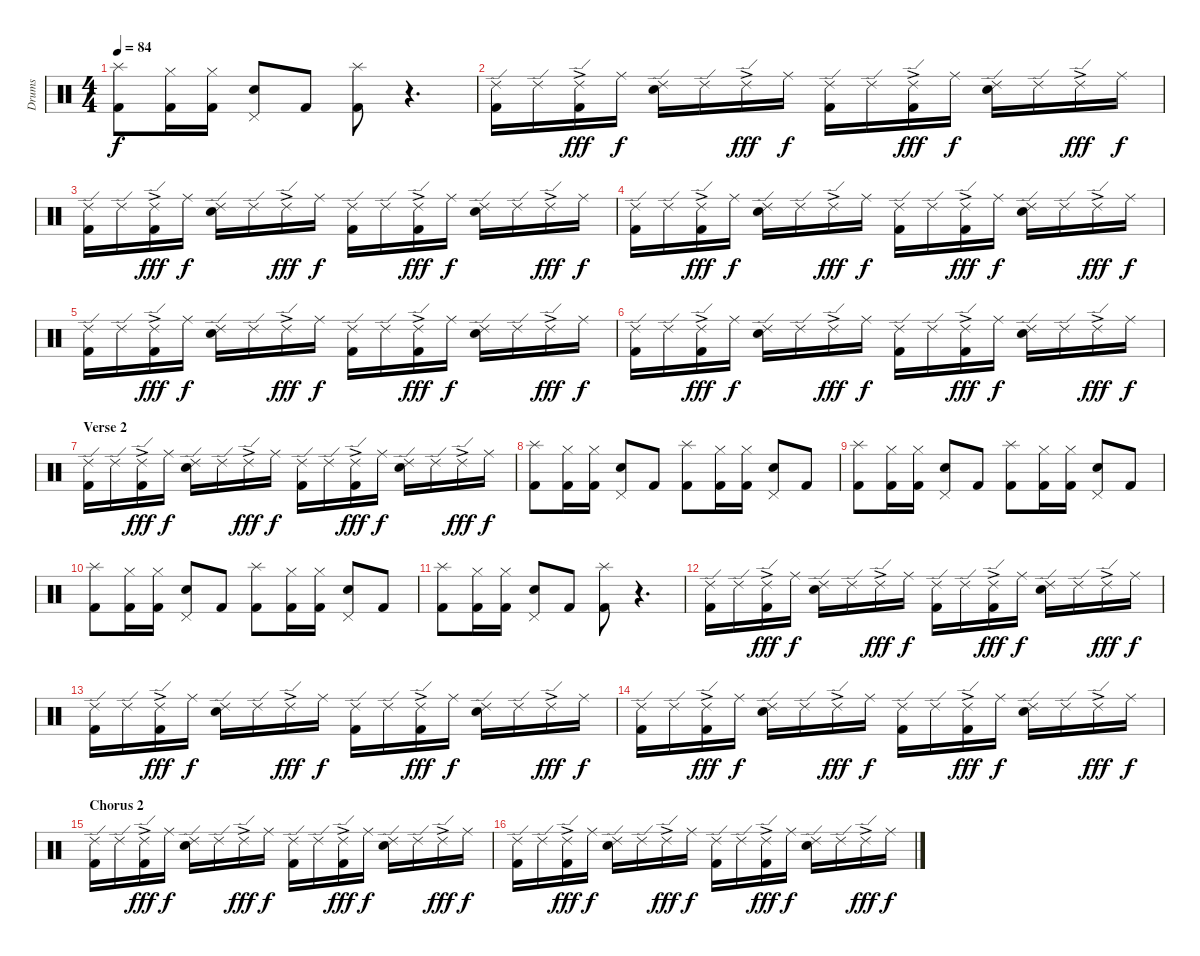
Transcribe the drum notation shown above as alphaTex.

\track ("Drums" "Drums") {instrument percussion}
\staff {score}
\articulation defaults
\ts (4 4)
\tempo 84
\clef neutral
\ks c
("Splash (hit)" "Kick (hit) 2").8{dy f} ("Hi-Hat (closed)" "Kick (hit) 2").16 ("Hi-Hat (closed)" "Kick (hit) 2").16 ("Pedal Hi-Hat (hit)" "Snare (hit) 2").8 "Kick (hit) 2".8 ("Splash (hit)" "Kick (hit) 2").8 r.4{d} |
("Ride (edge) 2" "Kick (hit) 2").16 "Ride (edge) 2".16 ("Ride (edge) 2"{ac} "Kick (hit) 2").16{dy fff} "Ride (middle)".16{dy f} ("Ride (edge) 2" "Snare (hit) 2").16 "Ride (edge) 2".16 "Ride (edge) 2"{ac}.16{dy fff} "Ride (middle)".16{dy f} ("Ride (edge) 2" "Kick (hit) 2").16 "Ride (edge) 2".16 ("Ride (edge) 2"{ac} "Kick (hit) 2").16{dy fff} "Ride (middle)".16{dy f} ("Ride (edge) 2" "Snare (hit) 2").16 "Ride (edge) 2".16 "Ride (edge) 2"{ac}.16{dy fff} "Ride (middle)".16{dy f} |
("Ride (edge) 2" "Kick (hit) 2").16 "Ride (edge) 2".16 ("Ride (edge) 2"{ac} "Kick (hit) 2").16{dy fff} "Ride (middle)".16{dy f} ("Ride (edge) 2" "Snare (hit) 2").16 "Ride (edge) 2".16 "Ride (edge) 2"{ac}.16{dy fff} "Ride (middle)".16{dy f} ("Ride (edge) 2" "Kick (hit) 2").16 "Ride (edge) 2".16 ("Ride (edge) 2"{ac} "Kick (hit) 2").16{dy fff} "Ride (middle)".16{dy f} ("Ride (edge) 2" "Snare (hit) 2").16 "Ride (edge) 2".16 "Ride (edge) 2"{ac}.16{dy fff} "Ride (middle)".16{dy f} |
("Ride (edge) 2" "Kick (hit) 2").16 "Ride (edge) 2".16 ("Ride (edge) 2"{ac} "Kick (hit) 2").16{dy fff} "Ride (middle)".16{dy f} ("Ride (edge) 2" "Snare (hit) 2").16 "Ride (edge) 2".16 "Ride (edge) 2"{ac}.16{dy fff} "Ride (middle)".16{dy f} ("Ride (edge) 2" "Kick (hit) 2").16 "Ride (edge) 2".16 ("Ride (edge) 2"{ac} "Kick (hit) 2").16{dy fff} "Ride (middle)".16{dy f} ("Ride (edge) 2" "Snare (hit) 2").16 "Ride (edge) 2".16 "Ride (edge) 2"{ac}.16{dy fff} "Ride (middle)".16{dy f} |
("Ride (edge) 2" "Kick (hit) 2").16 "Ride (edge) 2".16 ("Ride (edge) 2"{ac} "Kick (hit) 2").16{dy fff} "Ride (middle)".16{dy f} ("Ride (edge) 2" "Snare (hit) 2").16 "Ride (edge) 2".16 "Ride (edge) 2"{ac}.16{dy fff} "Ride (middle)".16{dy f} ("Ride (edge) 2" "Kick (hit) 2").16 "Ride (edge) 2".16 ("Ride (edge) 2"{ac} "Kick (hit) 2").16{dy fff} "Ride (middle)".16{dy f} ("Ride (edge) 2" "Snare (hit) 2").16 "Ride (edge) 2".16 "Ride (edge) 2"{ac}.16{dy fff} "Ride (middle)".16{dy f} |
("Ride (edge) 2" "Kick (hit) 2").16 "Ride (edge) 2".16 ("Ride (edge) 2"{ac} "Kick (hit) 2").16{dy fff} "Ride (middle)".16{dy f} ("Ride (edge) 2" "Snare (hit) 2").16 "Ride (edge) 2".16 "Ride (edge) 2"{ac}.16{dy fff} "Ride (middle)".16{dy f} ("Ride (edge) 2" "Kick (hit) 2").16 "Ride (edge) 2".16 ("Ride (edge) 2"{ac} "Kick (hit) 2").16{dy fff} "Ride (middle)".16{dy f} ("Ride (edge) 2" "Snare (hit) 2").16 "Ride (edge) 2".16 "Ride (edge) 2"{ac}.16{dy fff} "Ride (middle)".16{dy f} |
\section ("" "Verse 2")
("Ride (edge) 2" "Kick (hit) 2").16 "Ride (edge) 2".16 ("Ride (edge) 2"{ac} "Kick (hit) 2").16{dy fff} "Ride (middle)".16{dy f} ("Ride (edge) 2" "Snare (hit) 2").16 "Ride (edge) 2".16 "Ride (edge) 2"{ac}.16{dy fff} "Ride (middle)".16{dy f} ("Ride (edge) 2" "Kick (hit) 2").16 "Ride (edge) 2".16 ("Ride (edge) 2"{ac} "Kick (hit) 2").16{dy fff} "Ride (middle)".16{dy f} ("Ride (edge) 2" "Snare (hit) 2").16 "Ride (edge) 2".16 "Ride (edge) 2"{ac}.16{dy fff} "Ride (middle)".16{dy f} |
("Splash (hit)" "Kick (hit) 2").8 ("Hi-Hat (closed)" "Kick (hit) 2").16 ("Hi-Hat (closed)" "Kick (hit) 2").16 ("Pedal Hi-Hat (hit)" "Snare (hit) 2").8 "Kick (hit) 2".8 ("Splash (hit)" "Kick (hit) 2").8 ("Hi-Hat (closed)" "Kick (hit) 2").16 ("Hi-Hat (closed)" "Kick (hit) 2").16 ("Pedal Hi-Hat (hit)" "Snare (hit) 2").8 "Kick (hit) 2".8 |
("Splash (hit)" "Kick (hit) 2").8 ("Hi-Hat (closed)" "Kick (hit) 2").16 ("Hi-Hat (closed)" "Kick (hit) 2").16 ("Pedal Hi-Hat (hit)" "Snare (hit) 2").8 "Kick (hit) 2".8 ("Splash (hit)" "Kick (hit) 2").8 ("Hi-Hat (closed)" "Kick (hit) 2").16 ("Hi-Hat (closed)" "Kick (hit) 2").16 ("Pedal Hi-Hat (hit)" "Snare (hit) 2").8 "Kick (hit) 2".8 |
("Splash (hit)" "Kick (hit) 2").8 ("Hi-Hat (closed)" "Kick (hit) 2").16 ("Hi-Hat (closed)" "Kick (hit) 2").16 ("Pedal Hi-Hat (hit)" "Snare (hit) 2").8 "Kick (hit) 2".8 ("Splash (hit)" "Kick (hit) 2").8 ("Hi-Hat (closed)" "Kick (hit) 2").16 ("Hi-Hat (closed)" "Kick (hit) 2").16 ("Pedal Hi-Hat (hit)" "Snare (hit) 2").8 "Kick (hit) 2".8 |
("Splash (hit)" "Kick (hit) 2").8 ("Hi-Hat (closed)" "Kick (hit) 2").16 ("Hi-Hat (closed)" "Kick (hit) 2").16 ("Pedal Hi-Hat (hit)" "Snare (hit) 2").8 "Kick (hit) 2".8 ("Splash (hit)" "Kick (hit) 2").8 r.4{d} |
("Ride (edge) 2" "Kick (hit) 2").16 "Ride (edge) 2".16 ("Ride (edge) 2"{ac} "Kick (hit) 2").16{dy fff} "Ride (middle)".16{dy f} ("Ride (edge) 2" "Snare (hit) 2").16 "Ride (edge) 2".16 "Ride (edge) 2"{ac}.16{dy fff} "Ride (middle)".16{dy f} ("Ride (edge) 2" "Kick (hit) 2").16 "Ride (edge) 2".16 ("Ride (edge) 2"{ac} "Kick (hit) 2").16{dy fff} "Ride (middle)".16{dy f} ("Ride (edge) 2" "Snare (hit) 2").16 "Ride (edge) 2".16 "Ride (edge) 2"{ac}.16{dy fff} "Ride (middle)".16{dy f} |
("Ride (edge) 2" "Kick (hit) 2").16 "Ride (edge) 2".16 ("Ride (edge) 2"{ac} "Kick (hit) 2").16{dy fff} "Ride (middle)".16{dy f} ("Ride (edge) 2" "Snare (hit) 2").16 "Ride (edge) 2".16 "Ride (edge) 2"{ac}.16{dy fff} "Ride (middle)".16{dy f} ("Ride (edge) 2" "Kick (hit) 2").16 "Ride (edge) 2".16 ("Ride (edge) 2"{ac} "Kick (hit) 2").16{dy fff} "Ride (middle)".16{dy f} ("Ride (edge) 2" "Snare (hit) 2").16 "Ride (edge) 2".16 "Ride (edge) 2"{ac}.16{dy fff} "Ride (middle)".16{dy f} |
("Ride (edge) 2" "Kick (hit) 2").16 "Ride (edge) 2".16 ("Ride (edge) 2"{ac} "Kick (hit) 2").16{dy fff} "Ride (middle)".16{dy f} ("Ride (edge) 2" "Snare (hit) 2").16 "Ride (edge) 2".16 "Ride (edge) 2"{ac}.16{dy fff} "Ride (middle)".16{dy f} ("Ride (edge) 2" "Kick (hit) 2").16 "Ride (edge) 2".16 ("Ride (edge) 2"{ac} "Kick (hit) 2").16{dy fff} "Ride (middle)".16{dy f} ("Ride (edge) 2" "Snare (hit) 2").16 "Ride (edge) 2".16 "Ride (edge) 2"{ac}.16{dy fff} "Ride (middle)".16{dy f} |
\section ("" "Chorus 2")
("Ride (edge) 2" "Kick (hit) 2").16 "Ride (edge) 2".16 ("Ride (edge) 2"{ac} "Kick (hit) 2").16{dy fff} "Ride (middle)".16{dy f} ("Ride (edge) 2" "Snare (hit) 2").16 "Ride (edge) 2".16 "Ride (edge) 2"{ac}.16{dy fff} "Ride (middle)".16{dy f} ("Ride (edge) 2" "Kick (hit) 2").16 "Ride (edge) 2".16 ("Ride (edge) 2"{ac} "Kick (hit) 2").16{dy fff} "Ride (middle)".16{dy f} ("Ride (edge) 2" "Snare (hit) 2").16 "Ride (edge) 2".16 "Ride (edge) 2"{ac}.16{dy fff} "Ride (middle)".16{dy f} |
("Ride (edge) 2" "Kick (hit) 2").16 "Ride (edge) 2".16 ("Ride (edge) 2"{ac} "Kick (hit) 2").16{dy fff} "Ride (middle)".16{dy f} ("Ride (edge) 2" "Snare (hit) 2").16 "Ride (edge) 2".16 "Ride (edge) 2"{ac}.16{dy fff} "Ride (middle)".16{dy f} ("Ride (edge) 2" "Kick (hit) 2").16 "Ride (edge) 2".16 ("Ride (edge) 2"{ac} "Kick (hit) 2").16{dy fff} "Ride (middle)".16{dy f} ("Ride (edge) 2" "Snare (hit) 2").16 "Ride (edge) 2".16 "Ride (edge) 2"{ac}.16{dy fff} "Ride (middle)".16{dy f}
